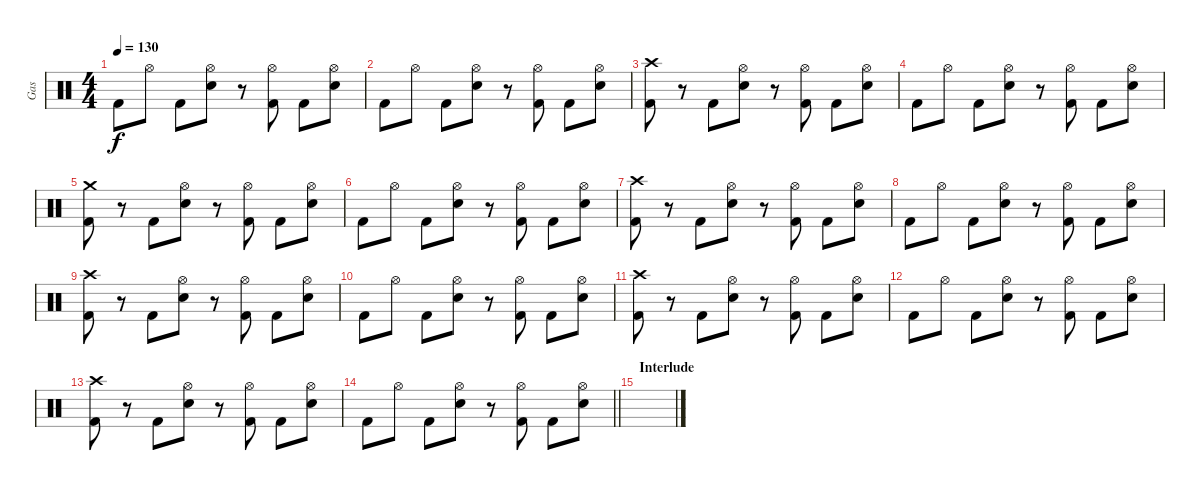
\track ("Gas" "Gas") {instrument percussion}
\staff {score}
\articulation defaults
\ts (4 4)
\tempo 130
\clef neutral
\ks c "Kick (hit) 2".8{dy f} "Hi-Hat (open)".8 "Kick (hit) 2".8
("Hi-Hat (open)" "Electric Snare (hit)").8 r.8 ("Hi-Hat (open)" "Kick (hit) 2").8 "Kick (hit) 2".8 ("Hi-Hat (open)" "Electric Snare (hit)").8 |
"Kick (hit) 2".8 "Hi-Hat (open)".8 "Kick (hit) 2".8 ("Electric Snare (hit)" "Hi-Hat (open)").8 r.8 ("Kick (hit) 2" "Hi-Hat (open)").8 "Kick (hit) 2".8 ("Electric Snare (hit)" "Hi-Hat (open)").8 |
("Crash high (hit)" "Kick (hit) 2").8 r.8 "Kick (hit) 2".8 ("Hi-Hat (open)" "Electric Snare (hit)").8 r.8 ("Hi-Hat (open)" "Kick (hit) 2").8 "Kick (hit) 2".8 ("Hi-Hat (open)" "Electric Snare (hit)").8 |
"Kick (hit) 2".8 "Hi-Hat (open)".8 "Kick (hit) 2".8 ("Electric Snare (hit)" "Hi-Hat (open)").8 r.8 ("Kick (hit) 2" "Hi-Hat (open)").8 "Kick (hit) 2".8 ("Electric Snare (hit)" "Hi-Hat (open)").8 |
("Crash medium (hit)" "Kick (hit) 2").8 r.8 "Kick (hit) 2".8 ("Hi-Hat (open)" "Electric Snare (hit)").8 r.8 ("Hi-Hat (open)" "Kick (hit) 2").8 "Kick (hit) 2".8 ("Hi-Hat (open)" "Electric Snare (hit)").8 |
"Kick (hit) 2".8 "Hi-Hat (open)".8 "Kick (hit) 2".8 ("Electric Snare (hit)" "Hi-Hat (open)").8 r.8 ("Kick (hit) 2" "Hi-Hat (open)").8 "Kick (hit) 2".8 ("Electric Snare (hit)" "Hi-Hat (open)").8 |
("Crash high (hit)" "Kick (hit) 2").8 r.8 "Kick (hit) 2".8 ("Hi-Hat (open)" "Electric Snare (hit)").8 r.8 ("Hi-Hat (open)" "Kick (hit) 2").8 "Kick (hit) 2".8 ("Hi-Hat (open)" "Electric Snare (hit)").8 |
"Kick (hit) 2".8 "Hi-Hat (open)".8 "Kick (hit) 2".8 ("Electric Snare (hit)" "Hi-Hat (open)").8 r.8 ("Kick (hit) 2" "Hi-Hat (open)").8 "Kick (hit) 2".8 ("Electric Snare (hit)" "Hi-Hat (open)").8 |
("Crash high (hit)" "Kick (hit) 2").8 r.8 "Kick (hit) 2".8 ("Hi-Hat (open)" "Electric Snare (hit)").8 r.8 ("Hi-Hat (open)" "Kick (hit) 2").8 "Kick (hit) 2".8 ("Hi-Hat (open)" "Electric Snare (hit)").8 |
"Kick (hit) 2".8 "Hi-Hat (open)".8 "Kick (hit) 2".8 ("Electric Snare (hit)" "Hi-Hat (open)").8 r.8 ("Kick (hit) 2" "Hi-Hat (open)").8 "Kick (hit) 2".8 ("Electric Snare (hit)" "Hi-Hat (open)").8 |
("Crash high (hit)" "Kick (hit) 2").8 r.8 "Kick (hit) 2".8 ("Hi-Hat (open)" "Electric Snare (hit)").8 r.8 ("Hi-Hat (open)" "Kick (hit) 2").8 "Kick (hit) 2".8 ("Hi-Hat (open)" "Electric Snare (hit)").8 |
"Kick (hit) 2".8 "Hi-Hat (open)".8 "Kick (hit) 2".8 ("Electric Snare (hit)" "Hi-Hat (open)").8 r.8 ("Kick (hit) 2" "Hi-Hat (open)").8 "Kick (hit) 2".8 ("Electric Snare (hit)" "Hi-Hat (open)").8 |
("Crash high (hit)" "Kick (hit) 2").8 r.8 "Kick (hit) 2".8 ("Hi-Hat (open)" "Electric Snare (hit)").8 r.8 ("Hi-Hat (open)" "Kick (hit) 2").8 "Kick (hit) 2".8 ("Hi-Hat (open)" "Electric Snare (hit)").8 |
\barLineRight lightlight "Kick (hit) 2".8 "Hi-Hat (open)".8 "Kick (hit) 2".8
("Electric Snare (hit)" "Hi-Hat (open)").8 r.8 ("Kick (hit) 2" "Hi-Hat (open)").8 "Kick (hit) 2".8 ("Electric Snare (hit)" "Hi-Hat (open)").8 |
\section ("" "Interlude")
